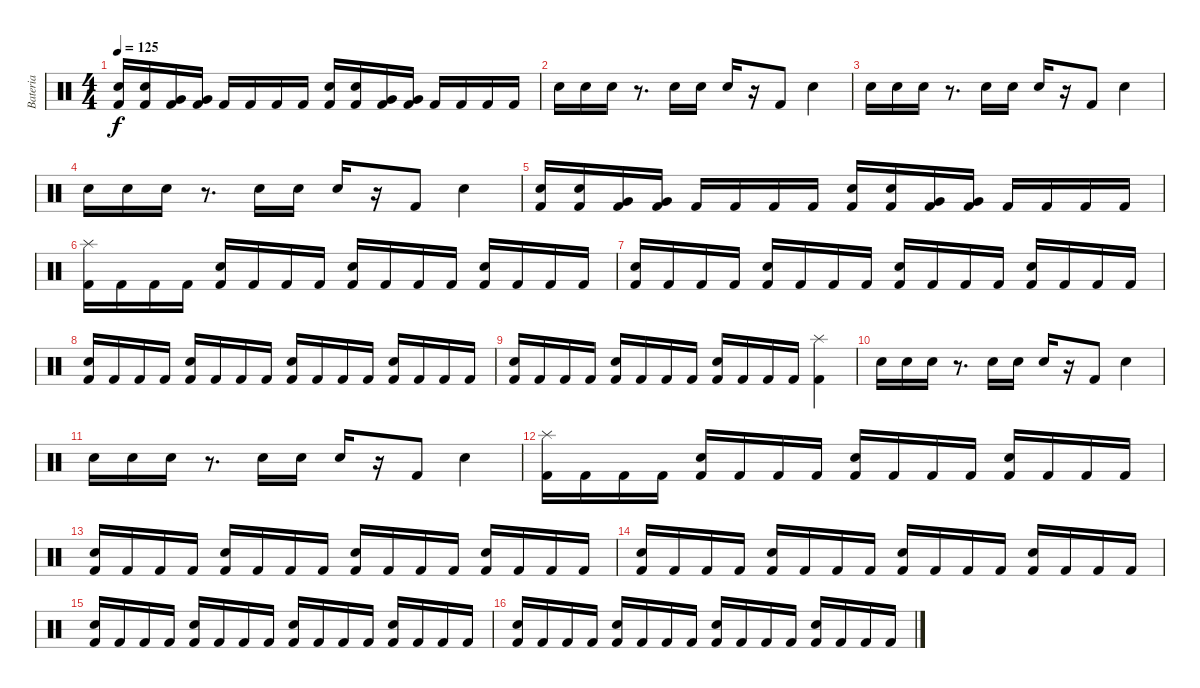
\track ("Bateria" "Bateria") {instrument percussion}
\staff {score}
\articulation defaults
\ts (4 4)
\tempo 125
\clef neutral
\ks c
("Kick (hit) 2" "Electric Snare (hit)").16{dy f} ("Kick (hit) 2" "Electric Snare (hit)").16 ("Kick (hit) 2" "Very Low Tom (hit)").16 ("Kick (hit) 2" "Very Low Tom (hit)").16 "Kick (hit) 2".16 "Kick (hit) 2".16 "Kick (hit) 2".16 "Kick (hit) 2".16 ("Kick (hit) 2" "Electric Snare (hit)").16 ("Kick (hit) 2" "Electric Snare (hit)").16 ("Kick (hit) 2" "Very Low Tom (hit)").16 ("Kick (hit) 2" "Very Low Tom (hit)").16 "Kick (hit) 2".16 "Kick (hit) 2".16 "Kick (hit) 2".16 "Kick (hit) 2".16 |
"Electric Snare (hit)".16 "Electric Snare (hit)".16 "Electric Snare (hit)".16 r.8{d} "Electric Snare (hit)".16 "Electric Snare (hit)".16 "Electric Snare (hit)".16 r.16 "Kick (hit) 2".8 "Electric Snare (hit)".4 |
"Electric Snare (hit)".16 "Electric Snare (hit)".16 "Electric Snare (hit)".16 r.8{d} "Electric Snare (hit)".16 "Electric Snare (hit)".16 "Electric Snare (hit)".16 r.16 "Kick (hit) 2".8 "Electric Snare (hit)".4 |
"Electric Snare (hit)".16 "Electric Snare (hit)".16 "Electric Snare (hit)".16 r.8{d} "Electric Snare (hit)".16 "Electric Snare (hit)".16 "Electric Snare (hit)".16 r.16 "Kick (hit) 2".8 "Electric Snare (hit)".4 |
("Kick (hit) 2" "Electric Snare (hit)").16 ("Kick (hit) 2" "Electric Snare (hit)").16 ("Kick (hit) 2" "Very Low Tom (hit)").16 ("Kick (hit) 2" "Very Low Tom (hit)").16 "Kick (hit) 2".16 "Kick (hit) 2".16 "Kick (hit) 2".16 "Kick (hit) 2".16 ("Kick (hit) 2" "Electric Snare (hit)").16 ("Kick (hit) 2" "Electric Snare (hit)").16 ("Kick (hit) 2" "Very Low Tom (hit)").16 ("Kick (hit) 2" "Very Low Tom (hit)").16 "Kick (hit) 2".16 "Kick (hit) 2".16 "Kick (hit) 2".16 "Kick (hit) 2".16 |
("Kick (hit) 2" "Splash (hit)").16 "Kick (hit) 2".16 "Kick (hit) 2".16 "Kick (hit) 2".16 ("Kick (hit) 2" "Electric Snare (hit)").16 "Kick (hit) 2".16 "Kick (hit) 2".16 "Kick (hit) 2".16 ("Kick (hit) 2" "Electric Snare (hit)").16 "Kick (hit) 2".16 "Kick (hit) 2".16 "Kick (hit) 2".16 ("Kick (hit) 2" "Electric Snare (hit)").16 "Kick (hit) 2".16 "Kick (hit) 2".16 "Kick (hit) 2".16 |
("Kick (hit) 2" "Electric Snare (hit)").16 "Kick (hit) 2".16 "Kick (hit) 2".16 "Kick (hit) 2".16 ("Kick (hit) 2" "Electric Snare (hit)").16 "Kick (hit) 2".16 "Kick (hit) 2".16 "Kick (hit) 2".16 ("Kick (hit) 2" "Electric Snare (hit)").16 "Kick (hit) 2".16 "Kick (hit) 2".16 "Kick (hit) 2".16 ("Kick (hit) 2" "Electric Snare (hit)").16 "Kick (hit) 2".16 "Kick (hit) 2".16 "Kick (hit) 2".16 |
("Kick (hit) 2" "Electric Snare (hit)").16 "Kick (hit) 2".16 "Kick (hit) 2".16 "Kick (hit) 2".16 ("Kick (hit) 2" "Electric Snare (hit)").16 "Kick (hit) 2".16 "Kick (hit) 2".16 "Kick (hit) 2".16 ("Kick (hit) 2" "Electric Snare (hit)").16 "Kick (hit) 2".16 "Kick (hit) 2".16 "Kick (hit) 2".16 ("Kick (hit) 2" "Electric Snare (hit)").16 "Kick (hit) 2".16 "Kick (hit) 2".16 "Kick (hit) 2".16 |
("Kick (hit) 2" "Electric Snare (hit)").16 "Kick (hit) 2".16 "Kick (hit) 2".16 "Kick (hit) 2".16 ("Kick (hit) 2" "Electric Snare (hit)").16 "Kick (hit) 2".16 "Kick (hit) 2".16 "Kick (hit) 2".16 ("Kick (hit) 2" "Electric Snare (hit)").16 "Kick (hit) 2".16 "Kick (hit) 2".16 "Kick (hit) 2".16 ("Kick (hit) 2" "Splash (hit)").4 |
"Electric Snare (hit)".16 "Electric Snare (hit)".16 "Electric Snare (hit)".16 r.8{d} "Electric Snare (hit)".16 "Electric Snare (hit)".16 "Electric Snare (hit)".16 r.16 "Kick (hit) 2".8 "Electric Snare (hit)".4 |
"Electric Snare (hit)".16 "Electric Snare (hit)".16 "Electric Snare (hit)".16 r.8{d} "Electric Snare (hit)".16 "Electric Snare (hit)".16 "Electric Snare (hit)".16 r.16 "Kick (hit) 2".8 "Electric Snare (hit)".4 |
("Kick (hit) 2" "Splash (hit)").16 "Kick (hit) 2".16 "Kick (hit) 2".16 "Kick (hit) 2".16 ("Kick (hit) 2" "Electric Snare (hit)").16 "Kick (hit) 2".16 "Kick (hit) 2".16 "Kick (hit) 2".16 ("Kick (hit) 2" "Electric Snare (hit)").16 "Kick (hit) 2".16 "Kick (hit) 2".16 "Kick (hit) 2".16 ("Kick (hit) 2" "Electric Snare (hit)").16 "Kick (hit) 2".16 "Kick (hit) 2".16 "Kick (hit) 2".16 |
("Kick (hit) 2" "Electric Snare (hit)").16 "Kick (hit) 2".16 "Kick (hit) 2".16 "Kick (hit) 2".16 ("Kick (hit) 2" "Electric Snare (hit)").16 "Kick (hit) 2".16 "Kick (hit) 2".16 "Kick (hit) 2".16 ("Kick (hit) 2" "Electric Snare (hit)").16 "Kick (hit) 2".16 "Kick (hit) 2".16 "Kick (hit) 2".16 ("Kick (hit) 2" "Electric Snare (hit)").16 "Kick (hit) 2".16 "Kick (hit) 2".16 "Kick (hit) 2".16 |
("Kick (hit) 2" "Electric Snare (hit)").16 "Kick (hit) 2".16 "Kick (hit) 2".16 "Kick (hit) 2".16 ("Kick (hit) 2" "Electric Snare (hit)").16 "Kick (hit) 2".16 "Kick (hit) 2".16 "Kick (hit) 2".16 ("Kick (hit) 2" "Electric Snare (hit)").16 "Kick (hit) 2".16 "Kick (hit) 2".16 "Kick (hit) 2".16 ("Kick (hit) 2" "Electric Snare (hit)").16 "Kick (hit) 2".16 "Kick (hit) 2".16 "Kick (hit) 2".16 |
("Kick (hit) 2" "Electric Snare (hit)").16 "Kick (hit) 2".16 "Kick (hit) 2".16 "Kick (hit) 2".16 ("Kick (hit) 2" "Electric Snare (hit)").16 "Kick (hit) 2".16 "Kick (hit) 2".16 "Kick (hit) 2".16 ("Kick (hit) 2" "Electric Snare (hit)").16 "Kick (hit) 2".16 "Kick (hit) 2".16 "Kick (hit) 2".16 ("Kick (hit) 2" "Electric Snare (hit)").16 "Kick (hit) 2".16 "Kick (hit) 2".16 "Kick (hit) 2".16 |
("Kick (hit) 2" "Electric Snare (hit)").16 "Kick (hit) 2".16 "Kick (hit) 2".16 "Kick (hit) 2".16 ("Kick (hit) 2" "Electric Snare (hit)").16 "Kick (hit) 2".16 "Kick (hit) 2".16 "Kick (hit) 2".16 ("Kick (hit) 2" "Electric Snare (hit)").16 "Kick (hit) 2".16 "Kick (hit) 2".16 "Kick (hit) 2".16 ("Kick (hit) 2" "Electric Snare (hit)").16 "Kick (hit) 2".16 "Kick (hit) 2".16 "Kick (hit) 2".16
